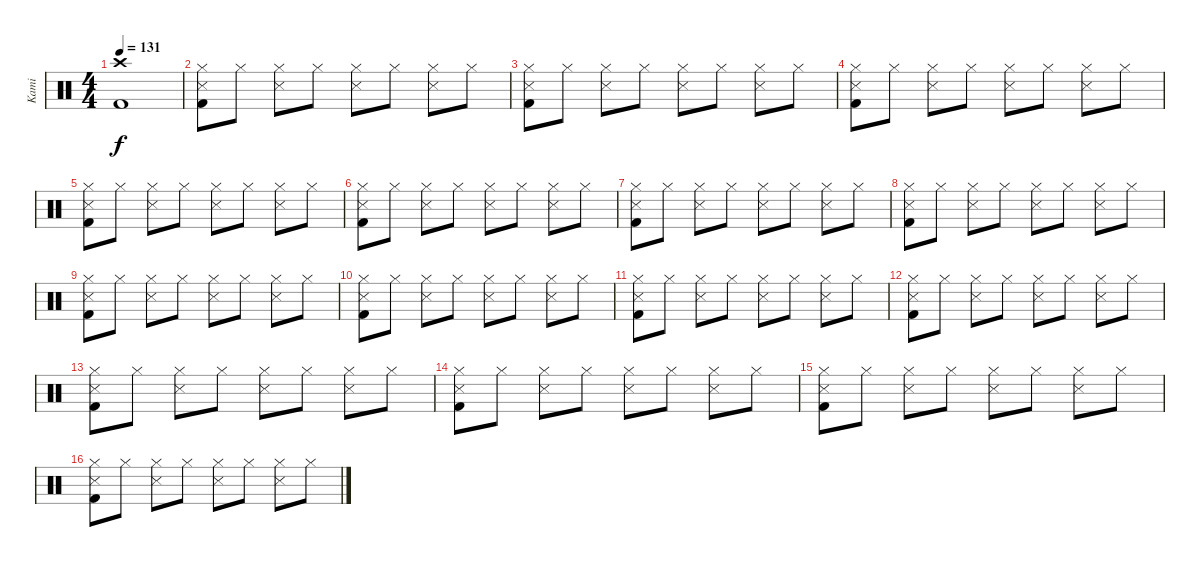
\track ("Kami" "Kami") {instrument percussion}
\staff {score}
\articulation defaults
\ts (4 4)
\tempo 131
\clef neutral
\ks c
("Crash high (hit)" "Kick (hit) 2").1{dy f} |
("Hi-Hat (closed)" "Kick (hit) 2" "Snare (side stick) 3").8 "Hi-Hat (closed)".8 ("Hi-Hat (closed)" "Snare (side stick) 3").8 "Hi-Hat (closed)".8 ("Hi-Hat (closed)" "Snare (side stick) 3").8 "Hi-Hat (closed)".8 ("Hi-Hat (closed)" "Snare (side stick) 3").8 "Hi-Hat (closed)".8 |
("Hi-Hat (closed)" "Kick (hit) 2" "Snare (side stick) 3").8 "Hi-Hat (closed)".8 ("Hi-Hat (closed)" "Snare (side stick) 3").8 "Hi-Hat (closed)".8 ("Hi-Hat (closed)" "Snare (side stick) 3").8 "Hi-Hat (closed)".8 ("Hi-Hat (closed)" "Snare (side stick) 3").8 "Hi-Hat (closed)".8 |
("Hi-Hat (closed)" "Kick (hit) 2" "Snare (side stick) 3").8 "Hi-Hat (closed)".8 ("Hi-Hat (closed)" "Snare (side stick) 3").8 "Hi-Hat (closed)".8 ("Hi-Hat (closed)" "Snare (side stick) 3").8 "Hi-Hat (closed)".8 ("Hi-Hat (closed)" "Snare (side stick) 3").8 "Hi-Hat (closed)".8 |
("Hi-Hat (closed)" "Kick (hit) 2" "Snare (side stick) 3").8 "Hi-Hat (closed)".8 ("Hi-Hat (closed)" "Snare (side stick) 3").8 "Hi-Hat (closed)".8 ("Hi-Hat (closed)" "Snare (side stick) 3").8 "Hi-Hat (closed)".8 ("Hi-Hat (closed)" "Snare (side stick) 3").8 "Hi-Hat (closed)".8 |
("Hi-Hat (closed)" "Kick (hit) 2" "Snare (side stick) 3").8 "Hi-Hat (closed)".8 ("Hi-Hat (closed)" "Snare (side stick) 3").8 "Hi-Hat (closed)".8 ("Hi-Hat (closed)" "Snare (side stick) 3").8 "Hi-Hat (closed)".8 ("Hi-Hat (closed)" "Snare (side stick) 3").8 "Hi-Hat (closed)".8 |
("Hi-Hat (closed)" "Kick (hit) 2" "Snare (side stick) 3").8 "Hi-Hat (closed)".8 ("Hi-Hat (closed)" "Snare (side stick) 3").8 "Hi-Hat (closed)".8 ("Hi-Hat (closed)" "Snare (side stick) 3").8 "Hi-Hat (closed)".8 ("Hi-Hat (closed)" "Snare (side stick) 3").8 "Hi-Hat (closed)".8 |
("Hi-Hat (closed)" "Kick (hit) 2" "Snare (side stick) 3").8 "Hi-Hat (closed)".8 ("Hi-Hat (closed)" "Snare (side stick) 3").8 "Hi-Hat (closed)".8 ("Hi-Hat (closed)" "Snare (side stick) 3").8 "Hi-Hat (closed)".8 ("Hi-Hat (closed)" "Snare (side stick) 3").8 "Hi-Hat (closed)".8 |
("Hi-Hat (closed)" "Kick (hit) 2" "Snare (side stick) 3").8 "Hi-Hat (closed)".8 ("Hi-Hat (closed)" "Snare (side stick) 3").8 "Hi-Hat (closed)".8 ("Hi-Hat (closed)" "Snare (side stick) 3").8 "Hi-Hat (closed)".8 ("Hi-Hat (closed)" "Snare (side stick) 3").8 "Hi-Hat (closed)".8 |
("Hi-Hat (closed)" "Kick (hit) 2" "Snare (side stick) 3").8 "Hi-Hat (closed)".8 ("Hi-Hat (closed)" "Snare (side stick) 3").8 "Hi-Hat (closed)".8 ("Hi-Hat (closed)" "Snare (side stick) 3").8 "Hi-Hat (closed)".8 ("Hi-Hat (closed)" "Snare (side stick) 3").8 "Hi-Hat (closed)".8 |
("Hi-Hat (closed)" "Kick (hit) 2" "Snare (side stick) 3").8 "Hi-Hat (closed)".8 ("Hi-Hat (closed)" "Snare (side stick) 3").8 "Hi-Hat (closed)".8 ("Hi-Hat (closed)" "Snare (side stick) 3").8 "Hi-Hat (closed)".8 ("Hi-Hat (closed)" "Snare (side stick) 3").8 "Hi-Hat (closed)".8 |
("Hi-Hat (closed)" "Kick (hit) 2" "Snare (side stick) 3").8 "Hi-Hat (closed)".8 ("Hi-Hat (closed)" "Snare (side stick) 3").8 "Hi-Hat (closed)".8 ("Hi-Hat (closed)" "Snare (side stick) 3").8 "Hi-Hat (closed)".8 ("Hi-Hat (closed)" "Snare (side stick) 3").8 "Hi-Hat (closed)".8 |
("Hi-Hat (closed)" "Kick (hit) 2" "Snare (side stick) 3").8 "Hi-Hat (closed)".8 ("Hi-Hat (closed)" "Snare (side stick) 3").8 "Hi-Hat (closed)".8 ("Hi-Hat (closed)" "Snare (side stick) 3").8 "Hi-Hat (closed)".8 ("Hi-Hat (closed)" "Snare (side stick) 3").8 "Hi-Hat (closed)".8 |
("Hi-Hat (closed)" "Kick (hit) 2" "Snare (side stick) 3").8 "Hi-Hat (closed)".8 ("Hi-Hat (closed)" "Snare (side stick) 3").8 "Hi-Hat (closed)".8 ("Hi-Hat (closed)" "Snare (side stick) 3").8 "Hi-Hat (closed)".8 ("Hi-Hat (closed)" "Snare (side stick) 3").8 "Hi-Hat (closed)".8 |
("Hi-Hat (closed)" "Kick (hit) 2" "Snare (side stick) 3").8 "Hi-Hat (closed)".8 ("Hi-Hat (closed)" "Snare (side stick) 3").8 "Hi-Hat (closed)".8 ("Hi-Hat (closed)" "Snare (side stick) 3").8 "Hi-Hat (closed)".8 ("Hi-Hat (closed)" "Snare (side stick) 3").8 "Hi-Hat (closed)".8 |
("Hi-Hat (closed)" "Kick (hit) 2" "Snare (side stick) 3").8 "Hi-Hat (closed)".8 ("Hi-Hat (closed)" "Snare (side stick) 3").8 "Hi-Hat (closed)".8 ("Hi-Hat (closed)" "Snare (side stick) 3").8 "Hi-Hat (closed)".8 ("Hi-Hat (closed)" "Snare (side stick) 3").8 "Hi-Hat (closed)".8
